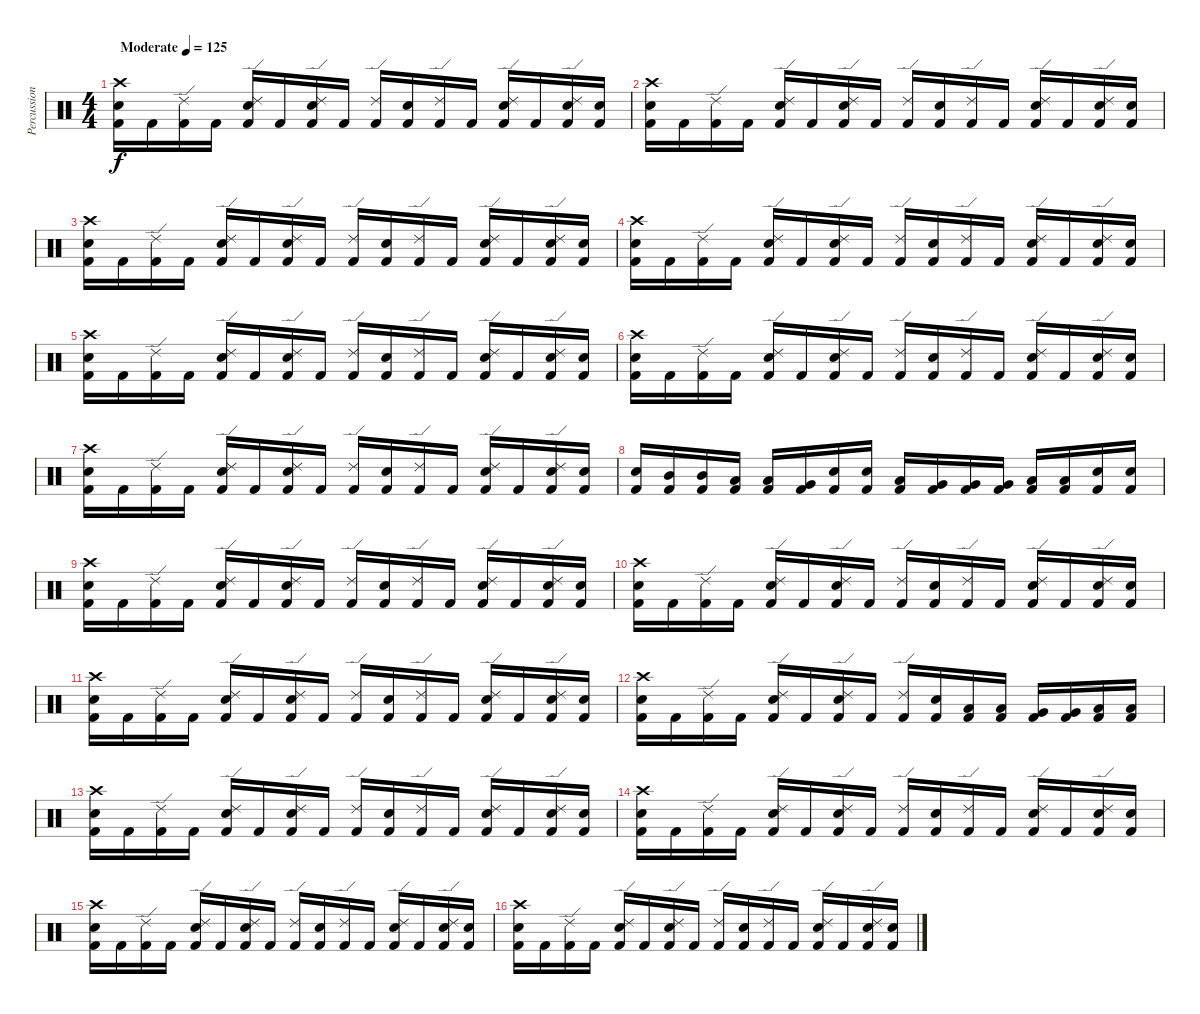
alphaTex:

\track ("Percussion" "Percussion") {instrument percussion}
\staff {score}
\articulation defaults
\ts (4 4)
\tempo (125 "Moderate")
\clef neutral
\ks c
("Crash high (hit)" "Electric Snare (hit)" "Kick (hit) 2").16{dy f} "Kick (hit) 2".16 ("Ride (edge) 2" "Kick (hit) 2").16 "Kick (hit) 2".16 ("Ride (edge) 2" "Electric Snare (hit)" "Kick (hit) 2").16 "Kick (hit) 2".16 ("Ride (edge) 2" "Electric Snare (hit)" "Kick (hit) 2").16 "Kick (hit) 2".16 ("Ride (edge) 2" "Kick (hit) 2").16 ("Electric Snare (hit)" "Kick (hit) 2").16 ("Ride (edge) 2" "Kick (hit) 2").16 "Kick (hit) 2".16 ("Ride (edge) 2" "Electric Snare (hit)" "Kick (hit) 2").16 "Kick (hit) 2".16 ("Ride (edge) 2" "Electric Snare (hit)" "Kick (hit) 2").16 ("Electric Snare (hit)" "Kick (hit) 2").16 |
("Crash high (hit)" "Electric Snare (hit)" "Kick (hit) 2").16 "Kick (hit) 2".16 ("Ride (edge) 2" "Kick (hit) 2").16 "Kick (hit) 2".16 ("Ride (edge) 2" "Electric Snare (hit)" "Kick (hit) 2").16 "Kick (hit) 2".16 ("Ride (edge) 2" "Electric Snare (hit)" "Kick (hit) 2").16 "Kick (hit) 2".16 ("Ride (edge) 2" "Kick (hit) 2").16 ("Electric Snare (hit)" "Kick (hit) 2").16 ("Ride (edge) 2" "Kick (hit) 2").16 "Kick (hit) 2".16 ("Ride (edge) 2" "Electric Snare (hit)" "Kick (hit) 2").16 "Kick (hit) 2".16 ("Ride (edge) 2" "Electric Snare (hit)" "Kick (hit) 2").16 ("Electric Snare (hit)" "Kick (hit) 2").16 |
("Crash high (hit)" "Electric Snare (hit)" "Kick (hit) 2").16 "Kick (hit) 2".16 ("Ride (edge) 2" "Kick (hit) 2").16 "Kick (hit) 2".16 ("Ride (edge) 2" "Electric Snare (hit)" "Kick (hit) 2").16 "Kick (hit) 2".16 ("Ride (edge) 2" "Electric Snare (hit)" "Kick (hit) 2").16 "Kick (hit) 2".16 ("Ride (edge) 2" "Kick (hit) 2").16 ("Electric Snare (hit)" "Kick (hit) 2").16 ("Ride (edge) 2" "Kick (hit) 2").16 "Kick (hit) 2".16 ("Ride (edge) 2" "Electric Snare (hit)" "Kick (hit) 2").16 "Kick (hit) 2".16 ("Ride (edge) 2" "Electric Snare (hit)" "Kick (hit) 2").16 ("Electric Snare (hit)" "Kick (hit) 2").16 |
("Crash high (hit)" "Electric Snare (hit)" "Kick (hit) 2").16 "Kick (hit) 2".16 ("Ride (edge) 2" "Kick (hit) 2").16 "Kick (hit) 2".16 ("Ride (edge) 2" "Electric Snare (hit)" "Kick (hit) 2").16 "Kick (hit) 2".16 ("Ride (edge) 2" "Electric Snare (hit)" "Kick (hit) 2").16 "Kick (hit) 2".16 ("Ride (edge) 2" "Kick (hit) 2").16 ("Electric Snare (hit)" "Kick (hit) 2").16 ("Ride (edge) 2" "Kick (hit) 2").16 "Kick (hit) 2".16 ("Ride (edge) 2" "Electric Snare (hit)" "Kick (hit) 2").16 "Kick (hit) 2".16 ("Ride (edge) 2" "Electric Snare (hit)" "Kick (hit) 2").16 ("Electric Snare (hit)" "Kick (hit) 2").16 |
("Crash high (hit)" "Electric Snare (hit)" "Kick (hit) 2").16 "Kick (hit) 2".16 ("Ride (edge) 2" "Kick (hit) 2").16 "Kick (hit) 2".16 ("Ride (edge) 2" "Electric Snare (hit)" "Kick (hit) 2").16 "Kick (hit) 2".16 ("Ride (edge) 2" "Electric Snare (hit)" "Kick (hit) 2").16 "Kick (hit) 2".16 ("Ride (edge) 2" "Kick (hit) 2").16 ("Electric Snare (hit)" "Kick (hit) 2").16 ("Ride (edge) 2" "Kick (hit) 2").16 "Kick (hit) 2".16 ("Ride (edge) 2" "Electric Snare (hit)" "Kick (hit) 2").16 "Kick (hit) 2".16 ("Ride (edge) 2" "Electric Snare (hit)" "Kick (hit) 2").16 ("Electric Snare (hit)" "Kick (hit) 2").16 |
("Crash high (hit)" "Electric Snare (hit)" "Kick (hit) 2").16 "Kick (hit) 2".16 ("Ride (edge) 2" "Kick (hit) 2").16 "Kick (hit) 2".16 ("Ride (edge) 2" "Electric Snare (hit)" "Kick (hit) 2").16 "Kick (hit) 2".16 ("Ride (edge) 2" "Electric Snare (hit)" "Kick (hit) 2").16 "Kick (hit) 2".16 ("Ride (edge) 2" "Kick (hit) 2").16 ("Electric Snare (hit)" "Kick (hit) 2").16 ("Ride (edge) 2" "Kick (hit) 2").16 "Kick (hit) 2".16 ("Ride (edge) 2" "Electric Snare (hit)" "Kick (hit) 2").16 "Kick (hit) 2".16 ("Ride (edge) 2" "Electric Snare (hit)" "Kick (hit) 2").16 ("Electric Snare (hit)" "Kick (hit) 2").16 |
("Crash high (hit)" "Electric Snare (hit)" "Kick (hit) 2").16 "Kick (hit) 2".16 ("Ride (edge) 2" "Kick (hit) 2").16 "Kick (hit) 2".16 ("Ride (edge) 2" "Electric Snare (hit)" "Kick (hit) 2").16 "Kick (hit) 2".16 ("Ride (edge) 2" "Electric Snare (hit)" "Kick (hit) 2").16 "Kick (hit) 2".16 ("Ride (edge) 2" "Kick (hit) 2").16 ("Electric Snare (hit)" "Kick (hit) 2").16 ("Ride (edge) 2" "Kick (hit) 2").16 "Kick (hit) 2".16 ("Ride (edge) 2" "Electric Snare (hit)" "Kick (hit) 2").16 "Kick (hit) 2".16 ("Ride (edge) 2" "Electric Snare (hit)" "Kick (hit) 2").16 ("Electric Snare (hit)" "Kick (hit) 2").16 |
("Electric Snare (hit)" "Kick (hit) 2").16 ("Mid Tom (hit)" "Kick (hit) 2").16 ("Mid Tom (hit)" "Kick (hit) 2").16 ("Low Tom (hit)" "Kick (hit) 2").16 ("Low Tom (hit)" "Kick (hit) 2").16 ("Very Low Tom (hit)" "Kick (hit) 2").16 ("Electric Snare (hit)" "Kick (hit) 2").16 ("Electric Snare (hit)" "Kick (hit) 2").16 ("Low Tom (hit)" "Kick (hit) 2").16 ("Very Low Tom (hit)" "Kick (hit) 2").16 ("Very Low Tom (hit)" "Kick (hit) 2").16 ("Very Low Tom (hit)" "Kick (hit) 2").16 ("Low Floor Tom (hit)" "Kick (hit) 2").16 ("Low Floor Tom (hit)" "Kick (hit) 2").16 ("Electric Snare (hit)" "Kick (hit) 2").16 ("Electric Snare (hit)" "Kick (hit) 2").16 |
("Crash high (hit)" "Electric Snare (hit)" "Kick (hit) 2").16 "Kick (hit) 2".16 ("Ride (edge) 2" "Kick (hit) 2").16 "Kick (hit) 2".16 ("Ride (edge) 2" "Electric Snare (hit)" "Kick (hit) 2").16 "Kick (hit) 2".16 ("Ride (edge) 2" "Electric Snare (hit)" "Kick (hit) 2").16 "Kick (hit) 2".16 ("Ride (edge) 2" "Kick (hit) 2").16 ("Electric Snare (hit)" "Kick (hit) 2").16 ("Ride (edge) 2" "Kick (hit) 2").16 "Kick (hit) 2".16 ("Ride (edge) 2" "Electric Snare (hit)" "Kick (hit) 2").16 "Kick (hit) 2".16 ("Ride (edge) 2" "Electric Snare (hit)" "Kick (hit) 2").16 ("Electric Snare (hit)" "Kick (hit) 2").16 |
("Crash high (hit)" "Electric Snare (hit)" "Kick (hit) 2").16 "Kick (hit) 2".16 ("Ride (edge) 2" "Kick (hit) 2").16 "Kick (hit) 2".16 ("Ride (edge) 2" "Electric Snare (hit)" "Kick (hit) 2").16 "Kick (hit) 2".16 ("Ride (edge) 2" "Electric Snare (hit)" "Kick (hit) 2").16 "Kick (hit) 2".16 ("Ride (edge) 2" "Kick (hit) 2").16 ("Electric Snare (hit)" "Kick (hit) 2").16 ("Ride (edge) 2" "Kick (hit) 2").16 "Kick (hit) 2".16 ("Ride (edge) 2" "Electric Snare (hit)" "Kick (hit) 2").16 "Kick (hit) 2".16 ("Ride (edge) 2" "Electric Snare (hit)" "Kick (hit) 2").16 ("Electric Snare (hit)" "Kick (hit) 2").16 |
("Crash high (hit)" "Electric Snare (hit)" "Kick (hit) 2").16 "Kick (hit) 2".16 ("Ride (edge) 2" "Kick (hit) 2").16 "Kick (hit) 2".16 ("Ride (edge) 2" "Electric Snare (hit)" "Kick (hit) 2").16 "Kick (hit) 2".16 ("Ride (edge) 2" "Electric Snare (hit)" "Kick (hit) 2").16 "Kick (hit) 2".16 ("Ride (edge) 2" "Kick (hit) 2").16 ("Electric Snare (hit)" "Kick (hit) 2").16 ("Ride (edge) 2" "Kick (hit) 2").16 "Kick (hit) 2".16 ("Ride (edge) 2" "Electric Snare (hit)" "Kick (hit) 2").16 "Kick (hit) 2".16 ("Ride (edge) 2" "Electric Snare (hit)" "Kick (hit) 2").16 ("Electric Snare (hit)" "Kick (hit) 2").16 |
("Crash high (hit)" "Electric Snare (hit)" "Kick (hit) 2").16 "Kick (hit) 2".16 ("Ride (edge) 2" "Kick (hit) 2").16 "Kick (hit) 2".16 ("Ride (edge) 2" "Electric Snare (hit)" "Kick (hit) 2").16 "Kick (hit) 2".16 ("Ride (edge) 2" "Electric Snare (hit)" "Kick (hit) 2").16 "Kick (hit) 2".16 ("Ride (edge) 2" "Kick (hit) 2").16 ("Electric Snare (hit)" "Kick (hit) 2").16 ("Low Tom (hit)" "Kick (hit) 2").16 ("Low Tom (hit)" "Kick (hit) 2").16 ("Very Low Tom (hit)" "Kick (hit) 2").16 ("Very Low Tom (hit)" "Kick (hit) 2").16 ("Low Floor Tom (hit)" "Kick (hit) 2").16 ("Low Floor Tom (hit)" "Kick (hit) 2").16 |
("Crash high (hit)" "Electric Snare (hit)" "Kick (hit) 2").16 "Kick (hit) 2".16 ("Ride (edge) 2" "Kick (hit) 2").16 "Kick (hit) 2".16 ("Ride (edge) 2" "Electric Snare (hit)" "Kick (hit) 2").16 "Kick (hit) 2".16 ("Ride (edge) 2" "Electric Snare (hit)" "Kick (hit) 2").16 "Kick (hit) 2".16 ("Ride (edge) 2" "Kick (hit) 2").16 ("Electric Snare (hit)" "Kick (hit) 2").16 ("Ride (edge) 2" "Kick (hit) 2").16 "Kick (hit) 2".16 ("Ride (edge) 2" "Electric Snare (hit)" "Kick (hit) 2").16 "Kick (hit) 2".16 ("Ride (edge) 2" "Electric Snare (hit)" "Kick (hit) 2").16 ("Electric Snare (hit)" "Kick (hit) 2").16 |
("Crash high (hit)" "Electric Snare (hit)" "Kick (hit) 2").16 "Kick (hit) 2".16 ("Ride (edge) 2" "Kick (hit) 2").16 "Kick (hit) 2".16 ("Ride (edge) 2" "Electric Snare (hit)" "Kick (hit) 2").16 "Kick (hit) 2".16 ("Ride (edge) 2" "Electric Snare (hit)" "Kick (hit) 2").16 "Kick (hit) 2".16 ("Ride (edge) 2" "Kick (hit) 2").16 ("Electric Snare (hit)" "Kick (hit) 2").16 ("Ride (edge) 2" "Kick (hit) 2").16 "Kick (hit) 2".16 ("Ride (edge) 2" "Electric Snare (hit)" "Kick (hit) 2").16 "Kick (hit) 2".16 ("Ride (edge) 2" "Electric Snare (hit)" "Kick (hit) 2").16 ("Electric Snare (hit)" "Kick (hit) 2").16 |
("Crash high (hit)" "Electric Snare (hit)" "Kick (hit) 2").16 "Kick (hit) 2".16 ("Ride (edge) 2" "Kick (hit) 2").16 "Kick (hit) 2".16 ("Ride (edge) 2" "Electric Snare (hit)" "Kick (hit) 2").16 "Kick (hit) 2".16 ("Ride (edge) 2" "Electric Snare (hit)" "Kick (hit) 2").16 "Kick (hit) 2".16 ("Ride (edge) 2" "Kick (hit) 2").16 ("Electric Snare (hit)" "Kick (hit) 2").16 ("Ride (edge) 2" "Kick (hit) 2").16 "Kick (hit) 2".16 ("Ride (edge) 2" "Electric Snare (hit)" "Kick (hit) 2").16 "Kick (hit) 2".16 ("Ride (edge) 2" "Electric Snare (hit)" "Kick (hit) 2").16 ("Electric Snare (hit)" "Kick (hit) 2").16 |
("Crash high (hit)" "Electric Snare (hit)" "Kick (hit) 2").16 "Kick (hit) 2".16 ("Ride (edge) 2" "Kick (hit) 2").16 "Kick (hit) 2".16 ("Ride (edge) 2" "Electric Snare (hit)" "Kick (hit) 2").16 "Kick (hit) 2".16 ("Ride (edge) 2" "Electric Snare (hit)" "Kick (hit) 2").16 "Kick (hit) 2".16 ("Ride (edge) 2" "Kick (hit) 2").16 ("Electric Snare (hit)" "Kick (hit) 2").16 ("Ride (edge) 2" "Kick (hit) 2").16 "Kick (hit) 2".16 ("Ride (edge) 2" "Electric Snare (hit)" "Kick (hit) 2").16 "Kick (hit) 2".16 ("Ride (edge) 2" "Electric Snare (hit)" "Kick (hit) 2").16 ("Electric Snare (hit)" "Kick (hit) 2").16
